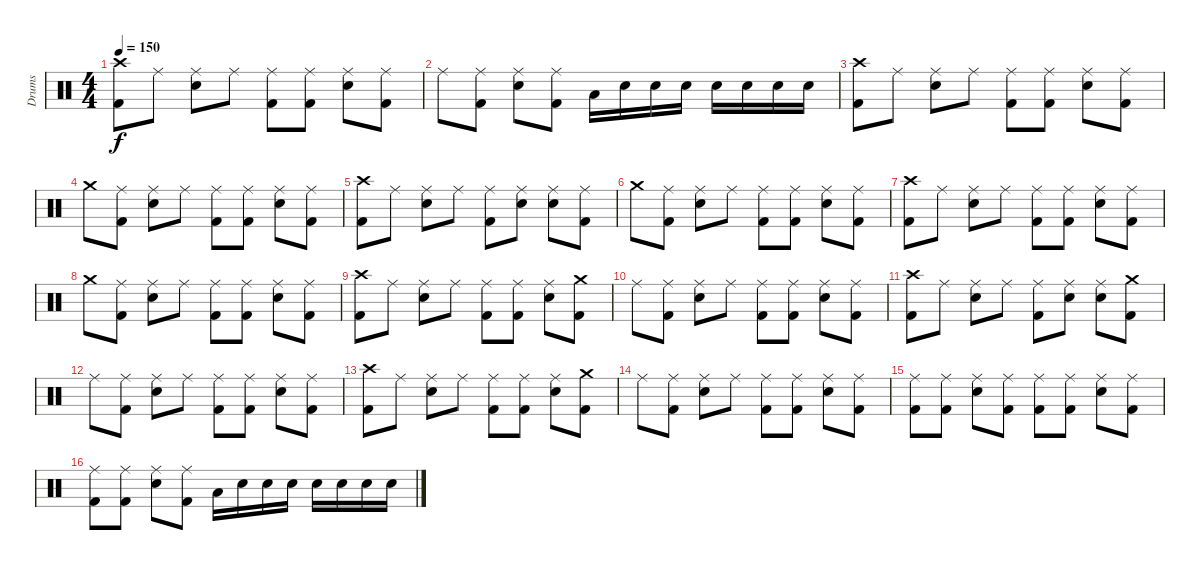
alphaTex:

\track ("Drums" "Drums") {instrument percussion}
\staff {score}
\articulation defaults
\ts (4 4)
\tempo 150
\clef neutral
\ks c
("Crash high (hit)" "Kick (hit) 2").8{dy f} "Ride (middle)".8 ("Ride (middle)" "Electric Snare (hit)").8 "Ride (middle)".8 ("Ride (middle)" "Kick (hit) 2").8 ("Ride (middle)" "Kick (hit) 2").8 ("Ride (middle)" "Electric Snare (hit)").8 ("Ride (middle)" "Kick (hit) 2").8 |
"Ride (middle)".8 ("Ride (middle)" "Kick (hit) 2").8 ("Ride (middle)" "Electric Snare (hit)").8 ("Ride (middle)" "Kick (hit) 2").8 "Low Floor Tom (hit)".16 "Electric Snare (hit)".16 "Electric Snare (hit)".16 "Electric Snare (hit)".16 "Electric Snare (hit)".16 "Electric Snare (hit)".16 "Electric Snare (hit)".16 "Electric Snare (hit)".16 |
("Crash high (hit)" "Kick (hit) 2").8 "Ride (middle)".8 ("Ride (middle)" "Electric Snare (hit)").8 "Ride (middle)".8 ("Ride (middle)" "Kick (hit) 2").8 ("Ride (middle)" "Kick (hit) 2").8 ("Ride (middle)" "Electric Snare (hit)").8 ("Ride (middle)" "Kick (hit) 2").8 |
"Crash medium (hit)".8 ("Ride (middle)" "Kick (hit) 2").8 ("Ride (middle)" "Electric Snare (hit)").8 "Ride (middle)".8 ("Ride (middle)" "Kick (hit) 2").8 ("Ride (middle)" "Kick (hit) 2").8 ("Ride (middle)" "Electric Snare (hit)").8 ("Ride (middle)" "Kick (hit) 2").8 |
("Crash high (hit)" "Kick (hit) 2").8 "Ride (middle)".8 ("Ride (middle)" "Electric Snare (hit)").8 "Ride (middle)".8 ("Ride (middle)" "Kick (hit) 2").8 ("Ride (middle)" "Electric Snare (hit)").8 ("Ride (middle)" "Electric Snare (hit)").8 ("Ride (middle)" "Kick (hit) 2").8 |
"Crash medium (hit)".8 ("Ride (middle)" "Kick (hit) 2").8 ("Ride (middle)" "Electric Snare (hit)").8 "Ride (middle)".8 ("Ride (middle)" "Kick (hit) 2").8 ("Ride (middle)" "Kick (hit) 2").8 ("Ride (middle)" "Electric Snare (hit)").8 ("Ride (middle)" "Kick (hit) 2").8 |
("Crash high (hit)" "Kick (hit) 2").8 "Ride (middle)".8 ("Ride (middle)" "Electric Snare (hit)").8 "Ride (middle)".8 ("Ride (middle)" "Kick (hit) 2").8 ("Ride (middle)" "Kick (hit) 2").8 ("Ride (middle)" "Electric Snare (hit)").8 ("Ride (middle)" "Kick (hit) 2").8 |
"Crash medium (hit)".8 ("Ride (middle)" "Kick (hit) 2").8 ("Ride (middle)" "Electric Snare (hit)").8 "Ride (middle)".8 ("Ride (middle)" "Kick (hit) 2").8 ("Ride (middle)" "Kick (hit) 2").8 ("Ride (middle)" "Electric Snare (hit)").8 ("Ride (middle)" "Kick (hit) 2").8 |
("Crash high (hit)" "Kick (hit) 2").8 "Ride (middle)".8 ("Ride (middle)" "Electric Snare (hit)").8 "Ride (middle)".8 ("Ride (middle)" "Kick (hit) 2").8 ("Ride (middle)" "Kick (hit) 2").8 ("Ride (middle)" "Electric Snare (hit)").8 ("Crash medium (hit)" "Kick (hit) 2").8 |
"Ride (middle)".8 ("Ride (middle)" "Kick (hit) 2").8 ("Ride (middle)" "Electric Snare (hit)").8 "Ride (middle)".8 ("Ride (middle)" "Kick (hit) 2").8 ("Ride (middle)" "Kick (hit) 2").8 ("Ride (middle)" "Electric Snare (hit)").8 ("Ride (middle)" "Kick (hit) 2").8 |
("Crash high (hit)" "Kick (hit) 2").8 "Ride (middle)".8 ("Ride (middle)" "Electric Snare (hit)").8 "Ride (middle)".8 ("Ride (middle)" "Kick (hit) 2").8 ("Ride (middle)" "Electric Snare (hit)").8 ("Ride (middle)" "Electric Snare (hit)").8 ("Crash medium (hit)" "Kick (hit) 2").8 |
"Ride (middle)".8 ("Ride (middle)" "Kick (hit) 2").8 ("Ride (middle)" "Electric Snare (hit)").8 "Ride (middle)".8 ("Ride (middle)" "Kick (hit) 2").8 ("Ride (middle)" "Kick (hit) 2").8 ("Ride (middle)" "Electric Snare (hit)").8 ("Ride (middle)" "Kick (hit) 2").8 |
("Crash high (hit)" "Kick (hit) 2").8 "Ride (middle)".8 ("Ride (middle)" "Electric Snare (hit)").8 "Ride (middle)".8 ("Ride (middle)" "Kick (hit) 2").8 ("Ride (middle)" "Kick (hit) 2").8 ("Ride (middle)" "Electric Snare (hit)").8 ("Crash medium (hit)" "Kick (hit) 2").8 |
"Ride (middle)".8 ("Ride (middle)" "Kick (hit) 2").8 ("Ride (middle)" "Electric Snare (hit)").8 "Ride (middle)".8 ("Ride (middle)" "Kick (hit) 2").8 ("Ride (middle)" "Kick (hit) 2").8 ("Ride (middle)" "Electric Snare (hit)").8 ("Ride (middle)" "Kick (hit) 2").8 |
("Ride (middle)" "Kick (hit) 2").8 ("Ride (middle)" "Kick (hit) 2").8 ("Ride (middle)" "Electric Snare (hit)").8 ("Ride (middle)" "Kick (hit) 2").8 ("Ride (middle)" "Kick (hit) 2").8 ("Ride (middle)" "Kick (hit) 2").8 ("Ride (middle)" "Electric Snare (hit)").8 ("Ride (middle)" "Kick (hit) 2").8 |
("Ride (middle)" "Kick (hit) 2").8 ("Ride (middle)" "Kick (hit) 2").8 ("Ride (middle)" "Electric Snare (hit)").8 ("Ride (middle)" "Kick (hit) 2").8 "Low Floor Tom (hit)".16 "Electric Snare (hit)".16 "Electric Snare (hit)".16 "Electric Snare (hit)".16 "Electric Snare (hit)".16 "Electric Snare (hit)".16 "Electric Snare (hit)".16 "Electric Snare (hit)".16
